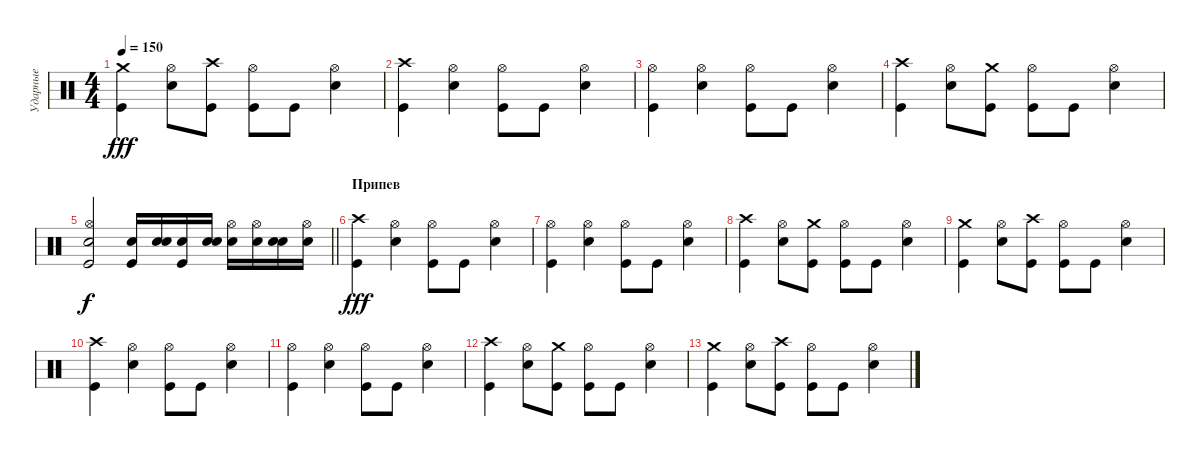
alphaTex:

\track ("Ударные" "Ударные") {instrument percussion}
\staff {score}
\articulation defaults
\ts (4 4)
\tempo 150
\clef neutral
\ks c
("Crash medium (hit)" "Kick (hit)").4{dy fff} ("Hi-Hat (open)" "Electric Snare (hit)").8 ("Crash high (hit)" "Kick (hit)").8 ("Hi-Hat (open)" "Kick (hit)").8 "Kick (hit)".8 ("Hi-Hat (open)" "Electric Snare (hit)").4 |
("Crash high (hit)" "Kick (hit)").4 ("Hi-Hat (open)" "Electric Snare (hit)").4 ("Hi-Hat (open)" "Kick (hit)").8 "Kick (hit)".8 ("Hi-Hat (open)" "Electric Snare (hit)").4 |
("Hi-Hat (open)" "Kick (hit)").4 ("Hi-Hat (open)" "Electric Snare (hit)").4 ("Hi-Hat (open)" "Kick (hit)").8 "Kick (hit)".8 ("Hi-Hat (open)" "Electric Snare (hit)").4 |
("Crash high (hit)" "Kick (hit)").4 ("Hi-Hat (open)" "Electric Snare (hit)").8 ("Crash medium (hit)" "Kick (hit)").8 ("Hi-Hat (open)" "Kick (hit)").8 "Kick (hit)".8 ("Hi-Hat (open)" "Electric Snare (hit)").4 |
\barLineRight lightlight
("Snare (hit) 2" "Kick (hit)" "Hi-Hat (open)").2{dy f} ("Kick (hit)" "Snare (hit) 2").16 ("Snare (hit) 2" "Snare (hit) 2").16 ("Kick (hit)" "Snare (hit) 2").16 ("Snare (hit) 2" "Snare (hit) 2").16 ("Hi-Hat (open)" "Snare (hit) 2").16 ("Hi-Hat (open)" "Snare (hit) 2").16 ("Snare (hit) 2" "Snare (hit) 2").16 ("Hi-Hat (open)" "Snare (hit) 2").16 |
\section ("" "Припев")
("Crash high (hit)" "Kick (hit)").4{dy fff} ("Hi-Hat (open)" "Electric Snare (hit)").4 ("Hi-Hat (open)" "Kick (hit)").8 "Kick (hit)".8 ("Hi-Hat (open)" "Electric Snare (hit)").4 |
("Hi-Hat (open)" "Kick (hit)").4 ("Hi-Hat (open)" "Electric Snare (hit)").4 ("Hi-Hat (open)" "Kick (hit)").8 "Kick (hit)".8 ("Hi-Hat (open)" "Electric Snare (hit)").4 |
("Crash high (hit)" "Kick (hit)").4 ("Hi-Hat (open)" "Electric Snare (hit)").8 ("Crash medium (hit)" "Kick (hit)").8 ("Hi-Hat (open)" "Kick (hit)").8 "Kick (hit)".8 ("Hi-Hat (open)" "Electric Snare (hit)").4 |
("Crash medium (hit)" "Kick (hit)").4 ("Hi-Hat (open)" "Electric Snare (hit)").8 ("Crash high (hit)" "Kick (hit)").8 ("Hi-Hat (open)" "Kick (hit)").8 "Kick (hit)".8 ("Hi-Hat (open)" "Electric Snare (hit)").4 |
("Crash high (hit)" "Kick (hit)").4 ("Hi-Hat (open)" "Electric Snare (hit)").4 ("Hi-Hat (open)" "Kick (hit)").8 "Kick (hit)".8 ("Hi-Hat (open)" "Electric Snare (hit)").4 |
("Hi-Hat (open)" "Kick (hit)").4 ("Hi-Hat (open)" "Electric Snare (hit)").4 ("Hi-Hat (open)" "Kick (hit)").8 "Kick (hit)".8 ("Hi-Hat (open)" "Electric Snare (hit)").4 |
("Crash high (hit)" "Kick (hit)").4 ("Hi-Hat (open)" "Electric Snare (hit)").8 ("Crash medium (hit)" "Kick (hit)").8 ("Hi-Hat (open)" "Kick (hit)").8 "Kick (hit)".8 ("Hi-Hat (open)" "Electric Snare (hit)").4 |
("Crash medium (hit)" "Kick (hit)").4 ("Hi-Hat (open)" "Electric Snare (hit)").8 ("Crash high (hit)" "Kick (hit)").8 ("Hi-Hat (open)" "Kick (hit)").8 "Kick (hit)".8 ("Hi-Hat (open)" "Electric Snare (hit)").4
